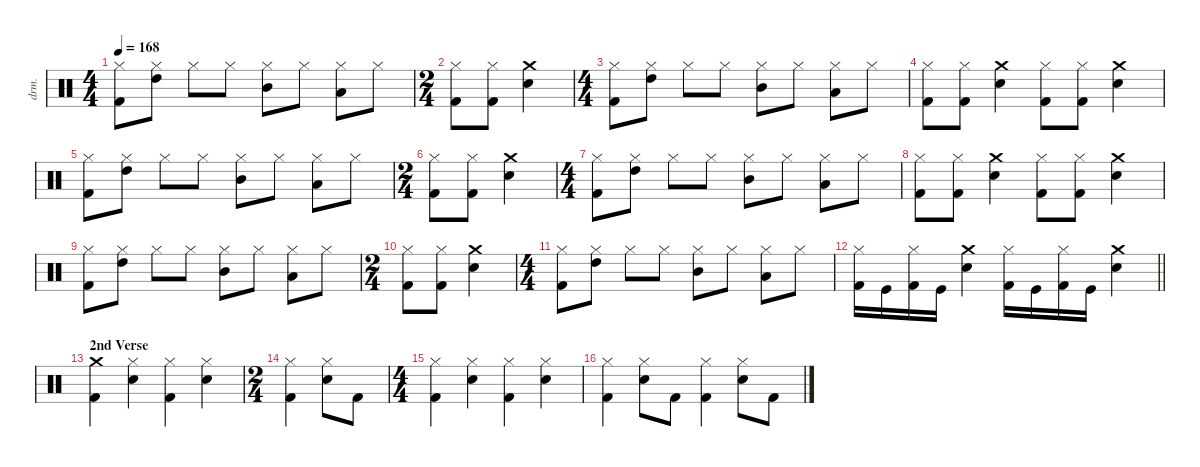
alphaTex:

\defaultSystemsLayout 4
\hideDynamics
\bracketExtendMode nobrackets
\otherSystemsTrackNameOrientation horizontal
\track ("Drums" "drm.") {instrument percussion}
\staff {score}
\articulation defaults
\ts (4 4)
\tempo 168
\clef neutral
\ks c
("Hi-Hat (closed)" "Kick (hit) 2").8{dy fff} ("High Tom (hit)" "Hi-Hat (closed)").8 "Hi-Hat (closed)".8 "Hi-Hat (closed)".8 ("Mid Tom (hit)" "Hi-Hat (closed)").8 "Hi-Hat (closed)".8 ("Low Tom (hit)" "Hi-Hat (closed)").8 "Hi-Hat (closed)".8 |
\ts (2 4)
\beaming (8 2 2)
("Kick (hit) 2" "Hi-Hat (closed)").8 ("Kick (hit) 2" "Hi-Hat (closed)").8 ("Snare (hit) 2" "Crash medium (hit)").4 |
\ts (4 4)
\beaming (8 2 2 2 2)
("Hi-Hat (closed)" "Kick (hit) 2").8 ("High Tom (hit)" "Hi-Hat (closed)").8 "Hi-Hat (closed)".8 "Hi-Hat (closed)".8 ("Mid Tom (hit)" "Hi-Hat (closed)").8 "Hi-Hat (closed)".8 ("Hi-Hat (closed)" "Low Tom (hit)").8 "Hi-Hat (closed)".8 |
("Hi-Hat (closed)" "Kick (hit) 2").8 ("Hi-Hat (closed)" "Kick (hit) 2").8 ("Snare (hit) 2" "Crash medium (hit)").4 ("Kick (hit) 2" "Hi-Hat (closed)").8 ("Kick (hit) 2" "Hi-Hat (closed)").8 ("Crash medium (hit)" "Snare (hit) 2").4 |
("Hi-Hat (closed)" "Kick (hit) 2").8 ("High Tom (hit)" "Hi-Hat (closed)").8 "Hi-Hat (closed)".8 "Hi-Hat (closed)".8 ("Mid Tom (hit)" "Hi-Hat (closed)").8 "Hi-Hat (closed)".8 ("Low Tom (hit)" "Hi-Hat (closed)").8 "Hi-Hat (closed)".8 |
\ts (2 4)
\beaming (8 2 2)
("Kick (hit) 2" "Hi-Hat (closed)").8 ("Kick (hit) 2" "Hi-Hat (closed)").8 ("Snare (hit) 2" "Crash medium (hit)").4 |
\ts (4 4)
\beaming (8 2 2 2 2)
("Hi-Hat (closed)" "Kick (hit) 2").8 ("High Tom (hit)" "Hi-Hat (closed)").8 "Hi-Hat (closed)".8 "Hi-Hat (closed)".8 ("Mid Tom (hit)" "Hi-Hat (closed)").8 "Hi-Hat (closed)".8 ("Hi-Hat (closed)" "Low Tom (hit)").8 "Hi-Hat (closed)".8 |
("Hi-Hat (closed)" "Kick (hit) 2").8 ("Hi-Hat (closed)" "Kick (hit) 2").8 ("Snare (hit) 2" "Crash medium (hit)").4 ("Kick (hit) 2" "Hi-Hat (closed)").8 ("Kick (hit) 2" "Hi-Hat (closed)").8 ("Crash medium (hit)" "Snare (hit) 2").4 |
("Hi-Hat (closed)" "Kick (hit) 2").8 ("High Tom (hit)" "Hi-Hat (closed)").8 "Hi-Hat (closed)".8 "Hi-Hat (closed)".8 ("Mid Tom (hit)" "Hi-Hat (closed)").8 "Hi-Hat (closed)".8 ("Hi-Hat (closed)" "Low Tom (hit)").8 "Hi-Hat (closed)".8 |
\ts (2 4)
\beaming (8 2 2)
("Hi-Hat (closed)" "Kick (hit) 2").8 ("Hi-Hat (closed)" "Kick (hit) 2").8 ("Crash medium (hit)" "Snare (hit) 2").4 |
\ts (4 4)
\beaming (8 2 2 2 2)
("Hi-Hat (closed)" "Kick (hit) 2").8 ("High Tom (hit)" "Hi-Hat (closed)").8 "Hi-Hat (closed)".8 "Hi-Hat (closed)".8 ("Mid Tom (hit)" "Hi-Hat (closed)").8 "Hi-Hat (closed)".8 ("Hi-Hat (closed)" "Low Tom (hit)").8 "Hi-Hat (closed)".8 |
\barLineRight lightlight
("Kick (hit) 2" "Hi-Hat (closed)").16 "Kick (hit)".16 ("Kick (hit) 2" "Hi-Hat (closed)").16 "Kick (hit)".16 ("Snare (hit) 2" "Crash medium (hit)").4 ("Kick (hit) 2" "Hi-Hat (closed)").16 "Kick (hit)".16 ("Kick (hit) 2" "Hi-Hat (closed)").16 "Kick (hit)".16 ("Crash medium (hit)" "Snare (hit) 2").4 |
\section ("" "2nd Verse")
("Kick (hit) 2" "Crash medium (hit)").4 ("Hi-Hat (closed)" "Snare (hit) 2").4 ("Hi-Hat (closed)" "Kick (hit) 2").4 ("Snare (hit) 2" "Hi-Hat (closed)").4 |
\ts (2 4)
\beaming (8 2 2)
("Hi-Hat (closed)" "Kick (hit) 2").4 ("Snare (hit) 2" "Hi-Hat (closed)").8 "Kick (hit) 2".8 |
\ts (4 4)
\beaming (8 2 2 2 2)
("Kick (hit) 2" "Hi-Hat (closed)").4 ("Snare (hit) 2" "Hi-Hat (closed)").4 ("Kick (hit) 2" "Hi-Hat (closed)").4 ("Snare (hit) 2" "Hi-Hat (closed)").4 |
("Hi-Hat (closed)" "Kick (hit) 2").4 ("Snare (hit) 2" "Hi-Hat (closed)").8 "Kick (hit) 2".8 ("Kick (hit) 2" "Hi-Hat (closed)").4 ("Hi-Hat (closed)" "Snare (hit) 2").8 "Kick (hit) 2".8
